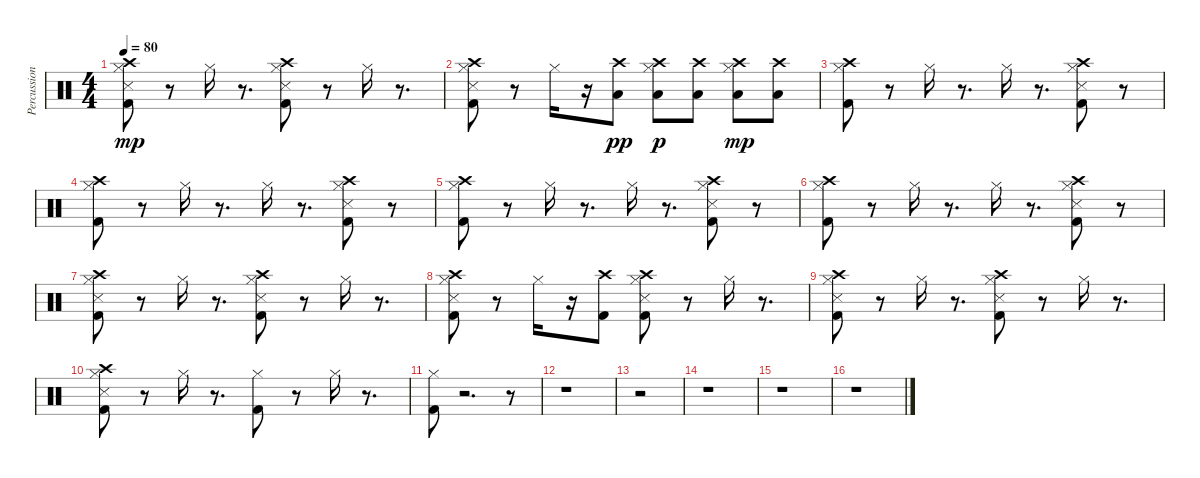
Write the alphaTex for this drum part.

\track ("Percussions" "Percussion") {instrument percussion}
\staff {score}
\articulation defaults
\ts (4 4)
\tempo 80
\clef neutral
\ks c
("Snare (side stick) 3" "Crash high (hit)" "Kick (hit) 2" "Hi-Hat (closed)").8{dy mp} r.8 "Hi-Hat (closed)".16 r.8{d} ("Snare (side stick) 3" "Crash high (hit)" "Kick (hit) 2" "Hi-Hat (closed)").8 r.8 "Hi-Hat (closed)".16 r.8{d} |
("Snare (side stick) 3" "Crash high (hit)" "Kick (hit) 2" "Hi-Hat (closed)").8 r.8 "Hi-Hat (closed)".16 r.16 ("Crash high (hit)" "Low Tom (hit)").8{dy pp} ("Crash high (hit)" "Hi-Hat (closed)" "Low Tom (hit)").8{dy p} ("Crash high (hit)" "Low Tom (hit)").8 ("Crash high (hit)" "Hi-Hat (closed)" "Low Tom (hit)").8{dy mp} ("Crash high (hit)" "Low Tom (hit)").8 |
("Crash high (hit)" "Kick (hit) 2" "Hi-Hat (closed)").8 r.8 "Hi-Hat (closed)".16 r.8{d} "Hi-Hat (closed)".16 r.8{d} ("Snare (side stick) 3" "Crash high (hit)" "Kick (hit) 2" "Hi-Hat (closed)").8 r.8 |
("Crash high (hit)" "Kick (hit) 2" "Hi-Hat (closed)").8 r.8 "Hi-Hat (closed)".16 r.8{d} "Hi-Hat (closed)".16 r.8{d} ("Snare (side stick) 3" "Crash high (hit)" "Kick (hit) 2" "Hi-Hat (closed)").8 r.8 |
("Crash high (hit)" "Kick (hit) 2" "Hi-Hat (closed)").8 r.8 "Hi-Hat (closed)".16 r.8{d} "Hi-Hat (closed)".16 r.8{d} ("Snare (side stick) 3" "Crash high (hit)" "Kick (hit) 2" "Hi-Hat (closed)").8 r.8 |
("Crash high (hit)" "Kick (hit) 2" "Hi-Hat (closed)").8 r.8 "Hi-Hat (closed)".16 r.8{d} "Hi-Hat (closed)".16 r.8{d} ("Snare (side stick) 3" "Crash high (hit)" "Kick (hit) 2" "Hi-Hat (closed)").8 r.8 |
("Snare (side stick) 3" "Crash high (hit)" "Kick (hit) 2" "Hi-Hat (closed)").8 r.8 "Hi-Hat (closed)".16 r.8{d} ("Snare (side stick) 3" "Crash high (hit)" "Kick (hit) 2" "Hi-Hat (closed)").8 r.8 "Hi-Hat (closed)".16 r.8{d} |
("Snare (side stick) 3" "Crash high (hit)" "Kick (hit) 2" "Hi-Hat (closed)").8 r.8 "Hi-Hat (closed)".16 r.16 ("Crash high (hit)" "Kick (hit) 2").8 ("Snare (side stick) 3" "Crash high (hit)" "Kick (hit) 2" "Hi-Hat (closed)").8 r.8 "Hi-Hat (closed)".16 r.8{d} |
("Snare (side stick) 3" "Crash high (hit)" "Kick (hit) 2" "Hi-Hat (closed)").8 r.8 "Hi-Hat (closed)".16 r.8{d} ("Snare (side stick) 3" "Crash high (hit)" "Kick (hit) 2" "Hi-Hat (closed)").8 r.8 "Hi-Hat (closed)".16 r.8{d} |
("Snare (side stick) 3" "Crash high (hit)" "Kick (hit) 2" "Hi-Hat (closed)").8 r.8 "Hi-Hat (closed)".16 r.8{d} ("Kick (hit) 2" "Hi-Hat (closed)").8 r.8 "Hi-Hat (closed)".16 r.8{d} |
("Kick (hit) 2" "Hi-Hat (closed)").8 r.2{d} r.8 |
r.1 |
r.2 |
r.1 |
r.1 |
r.1
